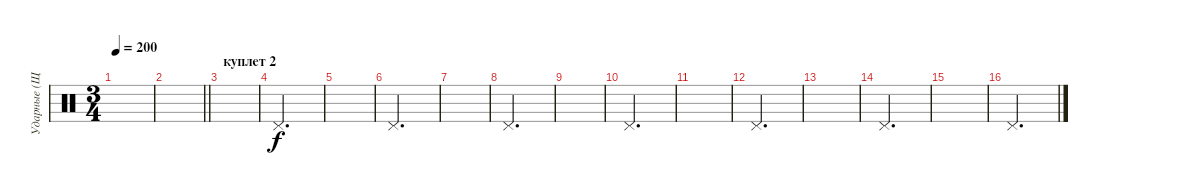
\track ("Ударные (Щетками)" "Ударные (Щ") {instrument percussion}
\staff {score}
\articulation defaults
\ts (3 4)
\tempo 200
\clef neutral
\ks c
|
\barLineRight lightlight
|
\section ("" "куплет 2")
|
"Pedal Hi-Hat (hit)".2{d} |
|
"Pedal Hi-Hat (hit)".2{d} |
|
"Pedal Hi-Hat (hit)".2{d} |
|
"Pedal Hi-Hat (hit)".2{d} |
|
"Pedal Hi-Hat (hit)".2{d} |
|
"Pedal Hi-Hat (hit)".2{d} |
|
"Pedal Hi-Hat (hit)".2{d}
